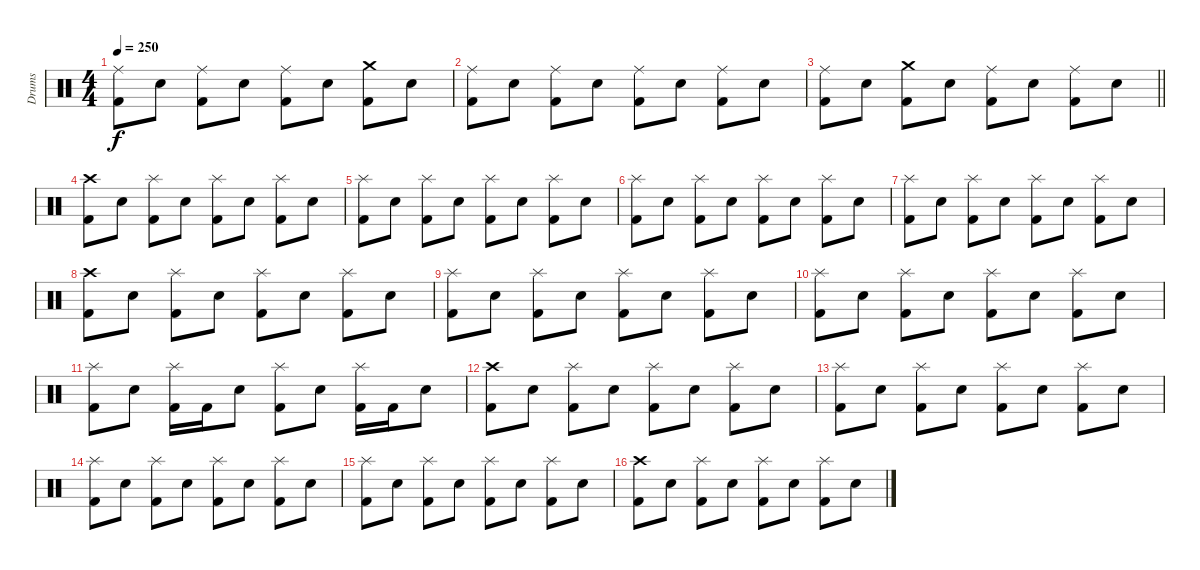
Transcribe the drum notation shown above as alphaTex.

\track ("Drums" "Drums") {instrument percussion}
\staff {score}
\articulation defaults
\ts (4 4)
\tempo 250
\clef neutral
\ks c
("Ride (middle)" "Kick (hit) 2").8{dy f} "Electric Snare (hit)".8 ("Ride (middle)" "Kick (hit) 2").8 "Electric Snare (hit)".8 ("Ride (middle)" "Kick (hit) 2").8 "Electric Snare (hit)".8 ("Crash medium (hit)" "Kick (hit) 2").8 "Electric Snare (hit)".8 |
("Ride (middle)" "Kick (hit) 2").8 "Electric Snare (hit)".8 ("Ride (middle)" "Kick (hit) 2").8 "Electric Snare (hit)".8 ("Ride (middle)" "Kick (hit) 2").8 "Electric Snare (hit)".8 ("Ride (middle)" "Kick (hit) 2").8 "Electric Snare (hit)".8 |
\barLineRight lightlight
("Ride (middle)" "Kick (hit) 2").8 "Electric Snare (hit)".8 ("Crash medium (hit)" "Kick (hit) 2").8 "Electric Snare (hit)".8 ("Ride (middle)" "Kick (hit) 2").8 "Electric Snare (hit)".8 ("Ride (middle)" "Kick (hit) 2").8 "Electric Snare (hit)".8 |
("Crash high (hit)" "Kick (hit) 2").8 "Electric Snare (hit)".8 ("Splash (hit)" "Kick (hit) 2").8 "Electric Snare (hit)".8 ("Splash (hit)" "Kick (hit) 2").8 "Electric Snare (hit)".8 ("Splash (hit)" "Kick (hit) 2").8 "Electric Snare (hit)".8 |
("Splash (hit)" "Kick (hit) 2").8 "Electric Snare (hit)".8 ("Splash (hit)" "Kick (hit) 2").8 "Electric Snare (hit)".8 ("Splash (hit)" "Kick (hit) 2").8 "Electric Snare (hit)".8 ("Splash (hit)" "Kick (hit) 2").8 "Electric Snare (hit)".8 |
("Splash (hit)" "Kick (hit) 2").8 "Electric Snare (hit)".8 ("Splash (hit)" "Kick (hit) 2").8 "Electric Snare (hit)".8 ("Splash (hit)" "Kick (hit) 2").8 "Electric Snare (hit)".8 ("Splash (hit)" "Kick (hit) 2").8 "Electric Snare (hit)".8 |
("Splash (hit)" "Kick (hit) 2").8 "Electric Snare (hit)".8 ("Splash (hit)" "Kick (hit) 2").8 "Electric Snare (hit)".8 ("Splash (hit)" "Kick (hit) 2").8 "Electric Snare (hit)".8 ("Splash (hit)" "Kick (hit) 2").8 "Electric Snare (hit)".8 |
("Crash high (hit)" "Kick (hit) 2").8 "Electric Snare (hit)".8 ("Splash (hit)" "Kick (hit) 2").8 "Electric Snare (hit)".8 ("Splash (hit)" "Kick (hit) 2").8 "Electric Snare (hit)".8 ("Splash (hit)" "Kick (hit) 2").8 "Electric Snare (hit)".8 |
("Splash (hit)" "Kick (hit) 2").8 "Electric Snare (hit)".8 ("Splash (hit)" "Kick (hit) 2").8 "Electric Snare (hit)".8 ("Splash (hit)" "Kick (hit) 2").8 "Electric Snare (hit)".8 ("Splash (hit)" "Kick (hit) 2").8 "Electric Snare (hit)".8 |
("Splash (hit)" "Kick (hit) 2").8 "Electric Snare (hit)".8 ("Splash (hit)" "Kick (hit) 2").8 "Electric Snare (hit)".8 ("Splash (hit)" "Kick (hit) 2").8 "Electric Snare (hit)".8 ("Splash (hit)" "Kick (hit) 2").8 "Electric Snare (hit)".8 |
("Splash (hit)" "Kick (hit) 2").8 "Electric Snare (hit)".8 ("Splash (hit)" "Kick (hit) 2").16 "Kick (hit) 2".16 "Electric Snare (hit)".8 ("Splash (hit)" "Kick (hit) 2").8 "Electric Snare (hit)".8 ("Splash (hit)" "Kick (hit) 2").16 "Kick (hit) 2".16 "Electric Snare (hit)".8 |
("Crash high (hit)" "Kick (hit) 2").8 "Electric Snare (hit)".8 ("Splash (hit)" "Kick (hit) 2").8 "Electric Snare (hit)".8 ("Splash (hit)" "Kick (hit) 2").8 "Electric Snare (hit)".8 ("Splash (hit)" "Kick (hit) 2").8 "Electric Snare (hit)".8 |
("Splash (hit)" "Kick (hit) 2").8 "Electric Snare (hit)".8 ("Splash (hit)" "Kick (hit) 2").8 "Electric Snare (hit)".8 ("Splash (hit)" "Kick (hit) 2").8 "Electric Snare (hit)".8 ("Splash (hit)" "Kick (hit) 2").8 "Electric Snare (hit)".8 |
("Splash (hit)" "Kick (hit) 2").8 "Electric Snare (hit)".8 ("Splash (hit)" "Kick (hit) 2").8 "Electric Snare (hit)".8 ("Splash (hit)" "Kick (hit) 2").8 "Electric Snare (hit)".8 ("Splash (hit)" "Kick (hit) 2").8 "Electric Snare (hit)".8 |
("Splash (hit)" "Kick (hit) 2").8 "Electric Snare (hit)".8 ("Splash (hit)" "Kick (hit) 2").8 "Electric Snare (hit)".8 ("Splash (hit)" "Kick (hit) 2").8 "Electric Snare (hit)".8 ("Splash (hit)" "Kick (hit) 2").8 "Electric Snare (hit)".8 |
("Crash high (hit)" "Kick (hit) 2").8 "Electric Snare (hit)".8 ("Splash (hit)" "Kick (hit) 2").8 "Electric Snare (hit)".8 ("Splash (hit)" "Kick (hit) 2").8 "Electric Snare (hit)".8 ("Splash (hit)" "Kick (hit) 2").8 "Electric Snare (hit)".8
